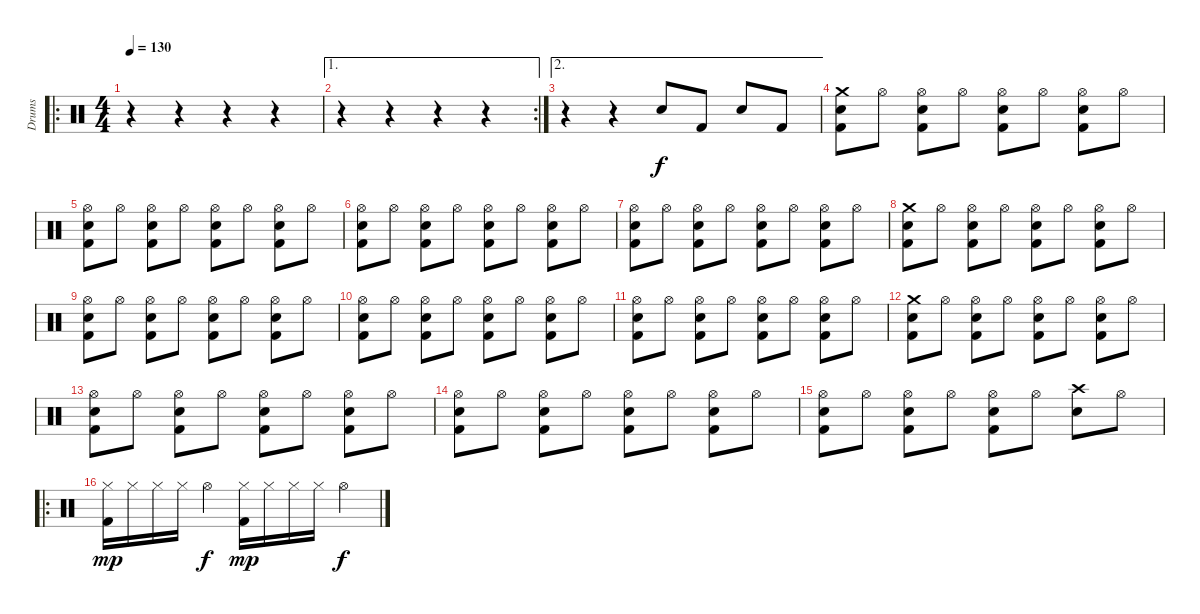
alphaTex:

\track ("Drums" "Drums") {instrument percussion}
\staff {score}
\articulation defaults
\ro
\ts (4 4)
\tempo 130
\clef neutral
\ks c
r.4{dy f} r.4 r.4 r.4 |
\ae 1
\rc 2
r.4 r.4 r.4 r.4 |
\ae 2
r.4 r.4 "Snare (hit) 2".8 "Kick (hit) 2".8 "Snare (hit) 2".8 "Kick (hit) 2".8 |
("Kick (hit) 2" "Crash medium (hit)" "Snare (hit) 2").8 "Hi-Hat (open)".8 ("Kick (hit) 2" "Hi-Hat (open)" "Snare (hit) 2").8 "Hi-Hat (open)".8 ("Kick (hit) 2" "Hi-Hat (open)" "Snare (hit) 2").8 "Hi-Hat (open)".8 ("Kick (hit) 2" "Hi-Hat (open)" "Snare (hit) 2").8 "Hi-Hat (open)".8 |
("Kick (hit) 2" "Hi-Hat (open)" "Snare (hit) 2").8 "Hi-Hat (open)".8 ("Kick (hit) 2" "Hi-Hat (open)" "Snare (hit) 2").8 "Hi-Hat (open)".8 ("Kick (hit) 2" "Hi-Hat (open)" "Snare (hit) 2").8 "Hi-Hat (open)".8 ("Kick (hit) 2" "Hi-Hat (open)" "Snare (hit) 2").8 "Hi-Hat (open)".8 |
("Kick (hit) 2" "Hi-Hat (open)" "Snare (hit) 2").8 "Hi-Hat (open)".8 ("Kick (hit) 2" "Hi-Hat (open)" "Snare (hit) 2").8 "Hi-Hat (open)".8 ("Kick (hit) 2" "Hi-Hat (open)" "Snare (hit) 2").8 "Hi-Hat (open)".8 ("Kick (hit) 2" "Hi-Hat (open)" "Snare (hit) 2").8 "Hi-Hat (open)".8 |
("Kick (hit) 2" "Hi-Hat (open)" "Snare (hit) 2").8 "Hi-Hat (open)".8 ("Kick (hit) 2" "Hi-Hat (open)" "Snare (hit) 2").8 "Hi-Hat (open)".8 ("Kick (hit) 2" "Hi-Hat (open)" "Snare (hit) 2").8 "Hi-Hat (open)".8 ("Kick (hit) 2" "Hi-Hat (open)" "Snare (hit) 2").8 "Hi-Hat (open)".8 |
("Kick (hit) 2" "Crash medium (hit)" "Snare (hit) 2").8 "Hi-Hat (open)".8 ("Kick (hit) 2" "Hi-Hat (open)" "Snare (hit) 2").8 "Hi-Hat (open)".8 ("Kick (hit) 2" "Hi-Hat (open)" "Snare (hit) 2").8 "Hi-Hat (open)".8 ("Kick (hit) 2" "Hi-Hat (open)" "Snare (hit) 2").8 "Hi-Hat (open)".8 |
("Kick (hit) 2" "Hi-Hat (open)" "Snare (hit) 2").8 "Hi-Hat (open)".8 ("Kick (hit) 2" "Hi-Hat (open)" "Snare (hit) 2").8 "Hi-Hat (open)".8 ("Kick (hit) 2" "Hi-Hat (open)" "Snare (hit) 2").8 "Hi-Hat (open)".8 ("Kick (hit) 2" "Hi-Hat (open)" "Snare (hit) 2").8 "Hi-Hat (open)".8 |
("Kick (hit) 2" "Hi-Hat (open)" "Snare (hit) 2").8 "Hi-Hat (open)".8 ("Kick (hit) 2" "Hi-Hat (open)" "Snare (hit) 2").8 "Hi-Hat (open)".8 ("Kick (hit) 2" "Hi-Hat (open)" "Snare (hit) 2").8 "Hi-Hat (open)".8 ("Kick (hit) 2" "Hi-Hat (open)" "Snare (hit) 2").8 "Hi-Hat (open)".8 |
("Kick (hit) 2" "Hi-Hat (open)" "Snare (hit) 2").8 "Hi-Hat (open)".8 ("Kick (hit) 2" "Hi-Hat (open)" "Snare (hit) 2").8 "Hi-Hat (open)".8 ("Kick (hit) 2" "Hi-Hat (open)" "Snare (hit) 2").8 "Hi-Hat (open)".8 ("Kick (hit) 2" "Hi-Hat (open)" "Snare (hit) 2").8 "Hi-Hat (open)".8 |
("Kick (hit) 2" "Crash medium (hit)" "Snare (hit) 2").8 "Hi-Hat (open)".8 ("Kick (hit) 2" "Hi-Hat (open)" "Snare (hit) 2").8 "Hi-Hat (open)".8 ("Kick (hit) 2" "Hi-Hat (open)" "Snare (hit) 2").8 "Hi-Hat (open)".8 ("Kick (hit) 2" "Hi-Hat (open)" "Snare (hit) 2").8 "Hi-Hat (open)".8 |
("Kick (hit) 2" "Hi-Hat (open)" "Snare (hit) 2").8 "Hi-Hat (open)".8 ("Kick (hit) 2" "Hi-Hat (open)" "Snare (hit) 2").8 "Hi-Hat (open)".8 ("Kick (hit) 2" "Hi-Hat (open)" "Snare (hit) 2").8 "Hi-Hat (open)".8 ("Kick (hit) 2" "Hi-Hat (open)" "Snare (hit) 2").8 "Hi-Hat (open)".8 |
("Kick (hit) 2" "Hi-Hat (open)" "Snare (hit) 2").8 "Hi-Hat (open)".8 ("Kick (hit) 2" "Hi-Hat (open)" "Snare (hit) 2").8 "Hi-Hat (open)".8 ("Kick (hit) 2" "Hi-Hat (open)" "Snare (hit) 2").8 "Hi-Hat (open)".8 ("Kick (hit) 2" "Hi-Hat (open)" "Snare (hit) 2").8 "Hi-Hat (open)".8 |
("Kick (hit) 2" "Hi-Hat (open)" "Snare (hit) 2").8 "Hi-Hat (open)".8 ("Kick (hit) 2" "Hi-Hat (open)" "Snare (hit) 2").8 "Hi-Hat (open)".8 ("Kick (hit) 2" "Hi-Hat (open)" "Snare (hit) 2").8 "Hi-Hat (open)".8 ("Crash high (hit)" "Snare (hit) 2").8 "Hi-Hat (open)".8 |
\ro
("Kick (hit) 2" "Hi-Hat (closed)").16{dy mp} "Hi-Hat (closed)".16 "Hi-Hat (closed)".16 "Hi-Hat (closed)".16 "Hi-Hat (open)".4{dy f} ("Kick (hit) 2" "Hi-Hat (closed)").16{dy mp} "Hi-Hat (closed)".16 "Hi-Hat (closed)".16 "Hi-Hat (closed)".16 "Hi-Hat (open)".4{dy f}
